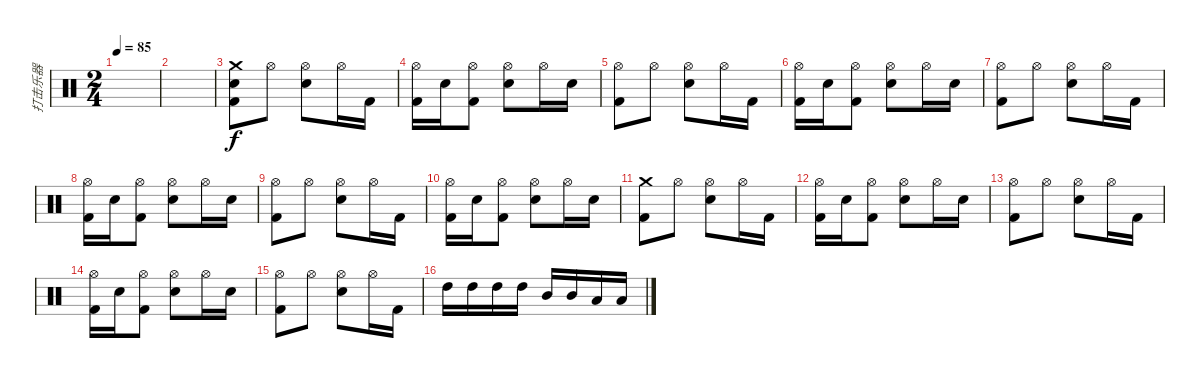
\track ("打击乐器" "打击乐器") {instrument percussion}
\staff {score}
\articulation defaults
\ts (2 4)
\tempo 85
\clef neutral
\ks c
|
|
("Crash medium (hit)" "Electric Snare (hit)" "Kick (hit) 2").8 "Hi-Hat (open)".8 ("Hi-Hat (open)" "Electric Snare (hit)").8 "Hi-Hat (open)".16 "Kick (hit) 2".16 |
("Hi-Hat (open)" "Kick (hit) 2").16 "Electric Snare (hit)".16 ("Hi-Hat (open)" "Kick (hit) 2").8 ("Hi-Hat (open)" "Electric Snare (hit)").8 "Hi-Hat (open)".16 "Electric Snare (hit)".16 |
("Hi-Hat (open)" "Kick (hit) 2").8 "Hi-Hat (open)".8 ("Hi-Hat (open)" "Electric Snare (hit)").8 "Hi-Hat (open)".16 "Kick (hit) 2".16 |
("Hi-Hat (open)" "Kick (hit) 2").16 "Electric Snare (hit)".16 ("Hi-Hat (open)" "Kick (hit) 2").8 ("Hi-Hat (open)" "Electric Snare (hit)").8 "Hi-Hat (open)".16 "Electric Snare (hit)".16 |
("Hi-Hat (open)" "Kick (hit) 2").8 "Hi-Hat (open)".8 ("Hi-Hat (open)" "Electric Snare (hit)").8 "Hi-Hat (open)".16 "Kick (hit) 2".16 |
("Hi-Hat (open)" "Kick (hit) 2").16 "Electric Snare (hit)".16 ("Hi-Hat (open)" "Kick (hit) 2").8 ("Hi-Hat (open)" "Electric Snare (hit)").8 "Hi-Hat (open)".16 "Electric Snare (hit)".16 |
("Hi-Hat (open)" "Kick (hit) 2").8 "Hi-Hat (open)".8 ("Hi-Hat (open)" "Electric Snare (hit)").8 "Hi-Hat (open)".16 "Kick (hit) 2".16 |
("Hi-Hat (open)" "Kick (hit) 2").16 "Electric Snare (hit)".16 ("Hi-Hat (open)" "Kick (hit) 2").8 ("Hi-Hat (open)" "Electric Snare (hit)").8 "Hi-Hat (open)".16 "Electric Snare (hit)".16 |
("Crash medium (hit)" "Kick (hit) 2").8 "Hi-Hat (open)".8 ("Hi-Hat (open)" "Electric Snare (hit)").8 "Hi-Hat (open)".16 "Kick (hit) 2".16 |
("Hi-Hat (open)" "Kick (hit) 2").16 "Electric Snare (hit)".16 ("Hi-Hat (open)" "Kick (hit) 2").8 ("Hi-Hat (open)" "Electric Snare (hit)").8 "Hi-Hat (open)".16 "Electric Snare (hit)".16 |
("Hi-Hat (open)" "Kick (hit) 2").8 "Hi-Hat (open)".8 ("Hi-Hat (open)" "Electric Snare (hit)").8 "Hi-Hat (open)".16 "Kick (hit) 2".16 |
("Hi-Hat (open)" "Kick (hit) 2").16 "Electric Snare (hit)".16 ("Hi-Hat (open)" "Kick (hit) 2").8 ("Hi-Hat (open)" "Electric Snare (hit)").8 "Hi-Hat (open)".16 "Electric Snare (hit)".16 |
("Hi-Hat (open)" "Kick (hit) 2").8 "Hi-Hat (open)".8 ("Hi-Hat (open)" "Electric Snare (hit)").8 "Hi-Hat (open)".16 "Kick (hit) 2".16 |
"High Tom (hit)".16 "High Tom (hit)".16 "High Tom (hit)".16 "High Tom (hit)".16 "Mid Tom (hit)".16 "Mid Tom (hit)".16 "Low Tom (hit)".16 "Low Tom (hit)".16
